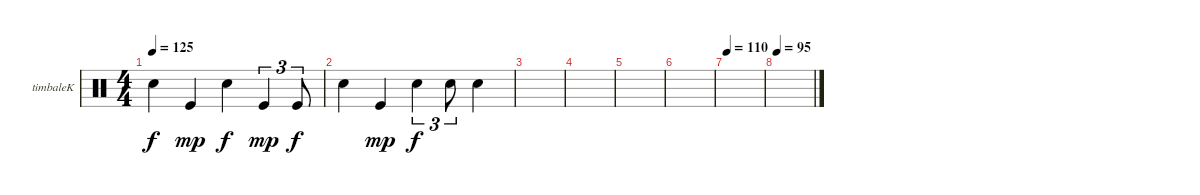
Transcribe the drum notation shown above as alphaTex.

\defaultSystemsLayout 4
\bracketExtendMode groupsimilarinstruments
\firstSystemTrackNameOrientation horizontal
\otherSystemsTrackNameOrientation horizontal
\track ("Timbale" "timbaleK") {instrument percussion}
\staff {score}
\articulation defaults
\ts (4 4)
\tempo 125
\clef neutral
\scale
0.333333
\ks c "Snare (hit) 2".4{dy f} "Kick (hit)".4{dy mp} "Snare (hit) 2".4{dy f} "Kick (hit)".4{tu (3 2) dy mp} "Kick (hit)".8{tu (3 2) dy f}
|
"Snare (hit) 2".4 "Kick (hit)".4{dy mp} "Snare (hit) 2".4{tu (3 2) dy f} "Snare (hit) 2".8{tu (3 2)} "Snare (hit) 2".4 |
|
|
|
|
\tempo 110
|
\tempo 95
